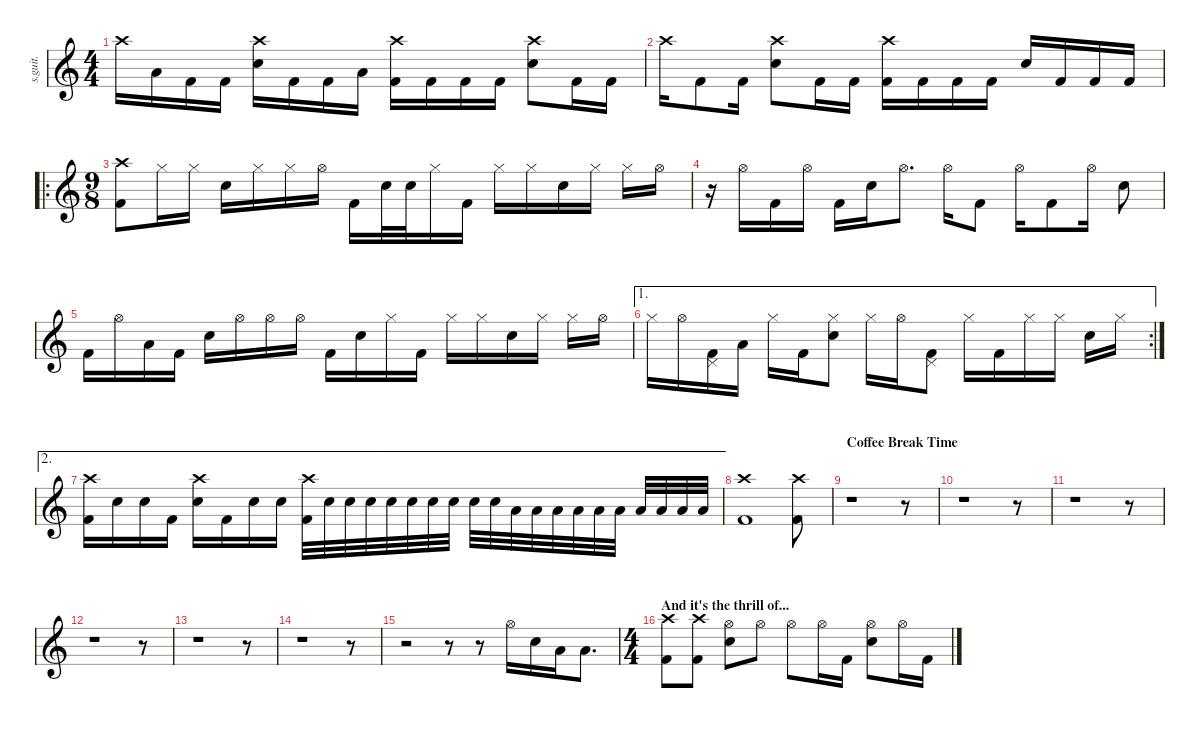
\defaultSystemsLayout 4
\hideDynamics
\bracketExtendMode nobrackets
\track ("" "s.guit.") {instrument percussion}
\staff {score}
\articulation defaults
\ts (4 4)
\tempo (116 hide)
\clef g2
\ks c "Crash high (hit)".16{lyrics (0 "") lyrics (1 "") lyrics (2 "") lyrics (3 "") lyrics (4 "") dy f} "Low Tom (hit)".16{lyrics (0 "") lyrics (1 "") lyrics (2 "") lyrics (3 "") lyrics (4 "")} "Kick (hit) 2".16{lyrics (0 "") lyrics (1 "") lyrics (2 "") lyrics (3 "") lyrics (4 "")} "Kick (hit) 2".16{lyrics (0 "") lyrics (1 "") lyrics (2 "") lyrics (3 "") lyrics (4 "")}
("Snare (hit) 2" "Crash high (hit)").16{lyrics (0 "") lyrics (1 "") lyrics (2 "") lyrics (3 "") lyrics (4 "")} "Kick (hit) 2".16{lyrics (0 "") lyrics (1 "") lyrics (2 "") lyrics (3 "") lyrics (4 "")} "Kick (hit) 2".16{lyrics (0 "") lyrics (1 "") lyrics (2 "") lyrics (3 "") lyrics (4 "")} "Low Tom (hit)".16{lyrics (0 "") lyrics (1 "") lyrics (2 "") lyrics (3 "") lyrics (4 "")} ("Kick (hit) 2" "Crash high (hit)").16{lyrics (0 "") lyrics (1 "") lyrics (2 "") lyrics (3 "") lyrics (4 "")} "Kick (hit) 2".16{lyrics (0 "") lyrics (1 "") lyrics (2 "") lyrics (3 "") lyrics (4 "")} "Kick (hit) 2".16{lyrics (0 "") lyrics (1 "") lyrics (2 "") lyrics (3 "") lyrics (4 "")} "Kick (hit) 2".16{lyrics (0 "") lyrics (1 "") lyrics (2 "") lyrics (3 "") lyrics (4 "")} ("Snare (hit) 2" "Crash high (hit)").8{lyrics (0 "") lyrics (1 "") lyrics (2 "") lyrics (3 "") lyrics (4 "")} "Kick (hit) 2".16{lyrics (0 "") lyrics (1 "") lyrics (2 "") lyrics (3 "") lyrics (4 "")} "Kick (hit) 2".16{lyrics (0 "") lyrics (1 "") lyrics (2 "") lyrics (3 "") lyrics (4 "")} |
"Crash high (hit)".16{lyrics (0 "") lyrics (1 "") lyrics (2 "") lyrics (3 "") lyrics (4 "")} "Kick (hit) 2".8{lyrics (0 "") lyrics (1 "") lyrics (2 "") lyrics (3 "") lyrics (4 "")} "Kick (hit) 2".16{lyrics (0 "") lyrics (1 "") lyrics (2 "") lyrics (3 "") lyrics (4 "")} ("Snare (hit) 2" "Crash high (hit)").8{lyrics (0 "") lyrics (1 "") lyrics (2 "") lyrics (3 "") lyrics (4 "")} "Kick (hit) 2".16{lyrics (0 "") lyrics (1 "") lyrics (2 "") lyrics (3 "") lyrics (4 "")} "Kick (hit) 2".16{lyrics (0 "") lyrics (1 "") lyrics (2 "") lyrics (3 "") lyrics (4 "")} ("Kick (hit) 2" "Crash high (hit)").16{lyrics (0 "") lyrics (1 "") lyrics (2 "") lyrics (3 "") lyrics (4 "")} "Kick (hit) 2".16{lyrics (0 "") lyrics (1 "") lyrics (2 "") lyrics (3 "") lyrics (4 "")} "Kick (hit) 2".16{lyrics (0 "") lyrics (1 "") lyrics (2 "") lyrics (3 "") lyrics (4 "")} "Kick (hit) 2".16{lyrics (0 "") lyrics (1 "") lyrics (2 "") lyrics (3 "") lyrics (4 "")} "Snare (hit) 2".16{lyrics (0 "") lyrics (1 "") lyrics (2 "") lyrics (3 "") lyrics (4 "")} "Kick (hit) 2".16{lyrics (0 "") lyrics (1 "") lyrics (2 "") lyrics (3 "") lyrics (4 "")} "Kick (hit) 2".16{lyrics (0 "") lyrics (1 "") lyrics (2 "") lyrics (3 "") lyrics (4 "")} "Kick (hit) 2".16{lyrics (0 "") lyrics (1 "") lyrics (2 "") lyrics (3 "") lyrics (4 "")} |
\ro
\ts (9 8)
\beaming (8 2 2 2 2)
("Kick (hit) 2" "Crash high (hit)").8{lyrics (0 "") lyrics (1 "") lyrics (2 "") lyrics (3 "") lyrics (4 "")} "Hi-Hat (closed)".16{lyrics (0 "") lyrics (1 "") lyrics (2 "") lyrics (3 "") lyrics (4 "")} "Hi-Hat (closed)".16{lyrics (0 "") lyrics (1 "") lyrics (2 "") lyrics (3 "") lyrics (4 "")} "Snare (hit) 2".16{lyrics (0 "") lyrics (1 "") lyrics (2 "") lyrics (3 "") lyrics (4 "")} "Hi-Hat (closed)".16{lyrics (0 "") lyrics (1 "") lyrics (2 "") lyrics (3 "") lyrics (4 "")} "Hi-Hat (closed)".16{lyrics (0 "") lyrics (1 "") lyrics (2 "") lyrics (3 "") lyrics (4 "")} "Hi-Hat (open)".16{lyrics (0 "") lyrics (1 "") lyrics (2 "") lyrics (3 "") lyrics (4 "")} "Kick (hit) 2".16{lyrics (0 "") lyrics (1 "") lyrics (2 "") lyrics (3 "") lyrics (4 "")} "Snare (hit) 2".32{lyrics (0 "") lyrics (1 "") lyrics (2 "") lyrics (3 "") lyrics (4 "")} "Snare (hit) 2".32{lyrics (0 "") lyrics (1 "") lyrics (2 "") lyrics (3 "") lyrics (4 "")} "Hi-Hat (closed)".16{lyrics (0 "") lyrics (1 "") lyrics (2 "") lyrics (3 "") lyrics (4 "")} "Kick (hit) 2".16{lyrics (0 "") lyrics (1 "") lyrics (2 "") lyrics (3 "") lyrics (4 "")} "Hi-Hat (closed)".16{lyrics (0 "") lyrics (1 "") lyrics (2 "") lyrics (3 "") lyrics (4 "")} "Hi-Hat (closed)".16{lyrics (0 "") lyrics (1 "") lyrics (2 "") lyrics (3 "") lyrics (4 "")} "Snare (hit) 2".16{lyrics (0 "") lyrics (1 "") lyrics (2 "") lyrics (3 "") lyrics (4 "")} "Hi-Hat (closed)".16{lyrics (0 "") lyrics (1 "") lyrics (2 "") lyrics (3 "") lyrics (4 "")} "Hi-Hat (closed)".16{lyrics (0 "") lyrics (1 "") lyrics (2 "") lyrics (3 "") lyrics (4 "")} "Hi-Hat (open)".16{lyrics (0 "") lyrics (1 "") lyrics (2 "") lyrics (3 "") lyrics (4 "")} |
r.16 "Hi-Hat (open)".16{lyrics (0 "") lyrics (1 "") lyrics (2 "") lyrics (3 "") lyrics (4 "")} "Kick (hit) 2".16{lyrics (0 "") lyrics (1 "") lyrics (2 "") lyrics (3 "") lyrics (4 "")} "Hi-Hat (open)".16{lyrics (0 "") lyrics (1 "") lyrics (2 "") lyrics (3 "") lyrics (4 "")} "Kick (hit) 2".16{lyrics (0 "") lyrics (1 "") lyrics (2 "") lyrics (3 "") lyrics (4 "")} "Snare (hit) 2".16{lyrics (0 "") lyrics (1 "") lyrics (2 "") lyrics (3 "") lyrics (4 "")} "Hi-Hat (open)".8{d lyrics (0 "") lyrics (1 "") lyrics (2 "") lyrics (3 "") lyrics (4 "")} "Hi-Hat (open)".16{lyrics (0 "") lyrics (1 "") lyrics (2 "") lyrics (3 "") lyrics (4 "")} "Kick (hit) 2".8{lyrics (0 "") lyrics (1 "") lyrics (2 "") lyrics (3 "") lyrics (4 "")} "Hi-Hat (open)".16{lyrics (0 "") lyrics (1 "") lyrics (2 "") lyrics (3 "") lyrics (4 "")} "Kick (hit) 2".8{lyrics (0 "") lyrics (1 "") lyrics (2 "") lyrics (3 "") lyrics (4 "")} "Hi-Hat (open)".16{lyrics (0 "") lyrics (1 "") lyrics (2 "") lyrics (3 "") lyrics (4 "")} "Snare (hit) 2".8{lyrics (0 "") lyrics (1 "") lyrics (2 "") lyrics (3 "") lyrics (4 "")} |
"Kick (hit) 2".16{lyrics (0 "") lyrics (1 "") lyrics (2 "") lyrics (3 "") lyrics (4 "")} "Hi-Hat (open)".16{lyrics (0 "") lyrics (1 "") lyrics (2 "") lyrics (3 "") lyrics (4 "")} "Low Floor Tom (hit)".16{lyrics (0 "") lyrics (1 "") lyrics (2 "") lyrics (3 "") lyrics (4 "")} "Kick (hit) 2".16{lyrics (0 "") lyrics (1 "") lyrics (2 "") lyrics (3 "") lyrics (4 "")} "Snare (hit) 2".16{lyrics (0 "") lyrics (1 "") lyrics (2 "") lyrics (3 "") lyrics (4 "")} "Hi-Hat (open)".16{lyrics (0 "") lyrics (1 "") lyrics (2 "") lyrics (3 "") lyrics (4 "")} "Hi-Hat (open)".16{lyrics (0 "") lyrics (1 "") lyrics (2 "") lyrics (3 "") lyrics (4 "")} "Hi-Hat (open)".16{lyrics (0 "") lyrics (1 "") lyrics (2 "") lyrics (3 "") lyrics (4 "")} "Kick (hit) 2".16{lyrics (0 "") lyrics (1 "") lyrics (2 "") lyrics (3 "") lyrics (4 "")} "Snare (hit) 2".16{lyrics (0 "") lyrics (1 "") lyrics (2 "") lyrics (3 "") lyrics (4 "")} "Hi-Hat (closed)".16{lyrics (0 "") lyrics (1 "") lyrics (2 "") lyrics (3 "") lyrics (4 "")} "Kick (hit) 2".16{lyrics (0 "") lyrics (1 "") lyrics (2 "") lyrics (3 "") lyrics (4 "")} "Hi-Hat (closed)".16{lyrics (0 "") lyrics (1 "") lyrics (2 "") lyrics (3 "") lyrics (4 "")} "Hi-Hat (closed)".16{lyrics (0 "") lyrics (1 "") lyrics (2 "") lyrics (3 "") lyrics (4 "")} "Snare (hit) 2".16{lyrics (0 "") lyrics (1 "") lyrics (2 "") lyrics (3 "") lyrics (4 "")} "Hi-Hat (closed)".16{lyrics (0 "") lyrics (1 "") lyrics (2 "") lyrics (3 "") lyrics (4 "")} "Hi-Hat (closed)".16{lyrics (0 "") lyrics (1 "") lyrics (2 "") lyrics (3 "") lyrics (4 "")} "Hi-Hat (open)".16{lyrics (0 "") lyrics (1 "") lyrics (2 "") lyrics (3 "") lyrics (4 "")} |
\ae 1
\rc 2 "Hi-Hat (closed)".16{lyrics (0 "") lyrics (1 "") lyrics (2 "") lyrics (3 "") lyrics (4 "")} "Hi-Hat (open)".16{lyrics (0 "") lyrics (1 "") lyrics (2 "") lyrics (3 "") lyrics (4 "")}
("Kick (hit) 2" "Pedal Hi-Hat (hit)").16{lyrics (0 "") lyrics (1 "") lyrics (2 "") lyrics (3 "") lyrics (4 "")} "Low Tom (hit)".16{lyrics (0 "") lyrics (1 "") lyrics (2 "") lyrics (3 "") lyrics (4 "")} "Hi-Hat (closed)".16{lyrics (0 "") lyrics (1 "") lyrics (2 "") lyrics (3 "") lyrics (4 "")} "Kick (hit) 2".16{lyrics (0 "") lyrics (1 "") lyrics (2 "") lyrics (3 "") lyrics (4 "")} ("Snare (hit) 2" "Hi-Hat (closed)").8{lyrics (0 "") lyrics (1 "") lyrics (2 "") lyrics (3 "") lyrics (4 "")} "Hi-Hat (closed)".16{lyrics (0 "") lyrics (1 "") lyrics (2 "") lyrics (3 "") lyrics (4 "")} "Hi-Hat (open)".16{lyrics (0 "") lyrics (1 "") lyrics (2 "") lyrics (3 "") lyrics (4 "")} ("Kick (hit) 2" "Pedal Hi-Hat (hit)").8{lyrics (0 "") lyrics (1 "") lyrics (2 "") lyrics (3 "") lyrics (4 "")} "Hi-Hat (closed)".16{lyrics (0 "") lyrics (1 "") lyrics (2 "") lyrics (3 "") lyrics (4 "")} "Kick (hit) 2".16{lyrics (0 "") lyrics (1 "") lyrics (2 "") lyrics (3 "") lyrics (4 "")} "Hi-Hat (closed)".16{lyrics (0 "") lyrics (1 "") lyrics (2 "") lyrics (3 "") lyrics (4 "")} "Hi-Hat (closed)".16{lyrics (0 "") lyrics (1 "") lyrics (2 "") lyrics (3 "") lyrics (4 "")} "Snare (hit) 2".16{lyrics (0 "") lyrics (1 "") lyrics (2 "") lyrics (3 "") lyrics (4 "")} "Hi-Hat (closed)".16{lyrics (0 "") lyrics (1 "") lyrics (2 "") lyrics (3 "") lyrics (4 "")} |
\ae 2
("Kick (hit) 2" "Crash high (hit)").16{lyrics (0 "") lyrics (1 "") lyrics (2 "") lyrics (3 "") lyrics (4 "")} "Snare (hit) 2".16{lyrics (0 "") lyrics (1 "") lyrics (2 "") lyrics (3 "") lyrics (4 "")} "Snare (hit) 2".16{lyrics (0 "") lyrics (1 "") lyrics (2 "") lyrics (3 "") lyrics (4 "")} "Kick (hit) 2".16{lyrics (0 "") lyrics (1 "") lyrics (2 "") lyrics (3 "") lyrics (4 "")} ("Snare (hit) 2" "Crash high (hit)").16{lyrics (0 "") lyrics (1 "") lyrics (2 "") lyrics (3 "") lyrics (4 "")} "Kick (hit) 2".16{lyrics (0 "") lyrics (1 "") lyrics (2 "") lyrics (3 "") lyrics (4 "")} "Snare (hit) 2".16{lyrics (0 "") lyrics (1 "") lyrics (2 "") lyrics (3 "") lyrics (4 "")} "Snare (hit) 2".16{lyrics (0 "") lyrics (1 "") lyrics (2 "") lyrics (3 "") lyrics (4 "")} ("Kick (hit) 2" "Crash high (hit)").32{lyrics (0 "") lyrics (1 "") lyrics (2 "") lyrics (3 "") lyrics (4 "")} "Snare (hit) 2".32{lyrics (0 "") lyrics (1 "") lyrics (2 "") lyrics (3 "") lyrics (4 "")} "Snare (hit) 2".32{lyrics (0 "") lyrics (1 "") lyrics (2 "") lyrics (3 "") lyrics (4 "")} "Snare (hit) 2".32{lyrics (0 "") lyrics (1 "") lyrics (2 "") lyrics (3 "") lyrics (4 "")} "Snare (hit) 2".32{lyrics (0 "") lyrics (1 "") lyrics (2 "") lyrics (3 "") lyrics (4 "")} "Snare (hit) 2".32{lyrics (0 "") lyrics (1 "") lyrics (2 "") lyrics (3 "") lyrics (4 "")} "Snare (hit) 2".32{lyrics (0 "") lyrics (1 "") lyrics (2 "") lyrics (3 "") lyrics (4 "")} "Snare (hit) 2".32{lyrics (0 "") lyrics (1 "") lyrics (2 "") lyrics (3 "") lyrics (4 "")} "Snare (hit) 2".32{lyrics (0 "") lyrics (1 "") lyrics (2 "") lyrics (3 "") lyrics (4 "")} "Snare (hit) 2".32{lyrics (0 "") lyrics (1 "") lyrics (2 "") lyrics (3 "") lyrics (4 "")} "Low Tom (hit)".32{lyrics (0 "") lyrics (1 "") lyrics (2 "") lyrics (3 "") lyrics (4 "")} "Low Tom (hit)".32{lyrics (0 "") lyrics (1 "") lyrics (2 "") lyrics (3 "") lyrics (4 "")} "Low Tom (hit)".32{lyrics (0 "") lyrics (1 "") lyrics (2 "") lyrics (3 "") lyrics (4 "")} "Low Tom (hit)".32{lyrics (0 "") lyrics (1 "") lyrics (2 "") lyrics (3 "") lyrics (4 "")} "Low Floor Tom (hit)".32{lyrics (0 "") lyrics (1 "") lyrics (2 "") lyrics (3 "") lyrics (4 "")} "Low Floor Tom (hit)".32{lyrics (0 "") lyrics (1 "") lyrics (2 "") lyrics (3 "") lyrics (4 "")} "Low Floor Tom (hit)".32{lyrics (0 "") lyrics (1 "") lyrics (2 "") lyrics (3 "") lyrics (4 "")} "Low Floor Tom (hit)".32{lyrics (0 "") lyrics (1 "") lyrics (2 "") lyrics (3 "") lyrics (4 "")} "Low Floor Tom (hit)".32{lyrics (0 "") lyrics (1 "") lyrics (2 "") lyrics (3 "") lyrics (4 "")} "Low Floor Tom (hit)".32{lyrics (0 "") lyrics (1 "") lyrics (2 "") lyrics (3 "") lyrics (4 "")} |
("Kick (hit) 2" "Crash high (hit)").1{lyrics (0 "") lyrics (1 "") lyrics (2 "") lyrics (3 "") lyrics (4 "")} ("Kick (hit) 2" "Crash high (hit)").8{lyrics (0 "") lyrics (1 "") lyrics (2 "") lyrics (3 "") lyrics (4 "")} |
\section ("" "Coffee Break Time")
r.1 r.8 |
r.1 r.8 |
r.1 r.8 |
r.1 r.8 |
r.1 r.8 |
r.1 r.8 |
r.2 r.8 r.8 "Hi-Hat (open)".16{lyrics (0 "") lyrics (1 "") lyrics (2 "") lyrics (3 "") lyrics (4 "")} "Snare (hit) 2".16{lyrics (0 "") lyrics (1 "") lyrics (2 "") lyrics (3 "") lyrics (4 "")} "Low Tom (hit)".16{lyrics (0 "") lyrics (1 "") lyrics (2 "") lyrics (3 "") lyrics (4 "")} "Low Floor Tom (hit)".8{d lyrics (0 "") lyrics (1 "") lyrics (2 "") lyrics (3 "") lyrics (4 "")} |
\ts (4 4)
\beaming (8 2 2 2 2)
\section ("" "And it's the thrill of...")
\tempo (106 hide)
("Kick (hit) 2" "Crash high (hit)").8{lyrics (0 "") lyrics (1 "") lyrics (2 "") lyrics (3 "") lyrics (4 "")} ("Kick (hit) 2" "Crash high (hit)").8{lyrics (0 "") lyrics (1 "") lyrics (2 "") lyrics (3 "") lyrics (4 "")} ("Snare (hit) 2" "Hi-Hat (open)").8{lyrics (0 "") lyrics (1 "") lyrics (2 "") lyrics (3 "") lyrics (4 "")} "Hi-Hat (open)".8{lyrics (0 "") lyrics (1 "") lyrics (2 "") lyrics (3 "") lyrics (4 "")} "Hi-Hat (open)".8{lyrics (0 "") lyrics (1 "") lyrics (2 "") lyrics (3 "") lyrics (4 "")} "Hi-Hat (open)".16{lyrics (0 "") lyrics (1 "") lyrics (2 "") lyrics (3 "") lyrics (4 "")} "Kick (hit) 2".16{lyrics (0 "") lyrics (1 "") lyrics (2 "") lyrics (3 "") lyrics (4 "")} ("Snare (hit) 2" "Hi-Hat (open)").8{lyrics (0 "") lyrics (1 "") lyrics (2 "") lyrics (3 "") lyrics (4 "")} "Hi-Hat (open)".16{lyrics (0 "") lyrics (1 "") lyrics (2 "") lyrics (3 "") lyrics (4 "")} "Kick (hit) 2".16{lyrics (0 "") lyrics (1 "") lyrics (2 "") lyrics (3 "") lyrics (4 "")}
